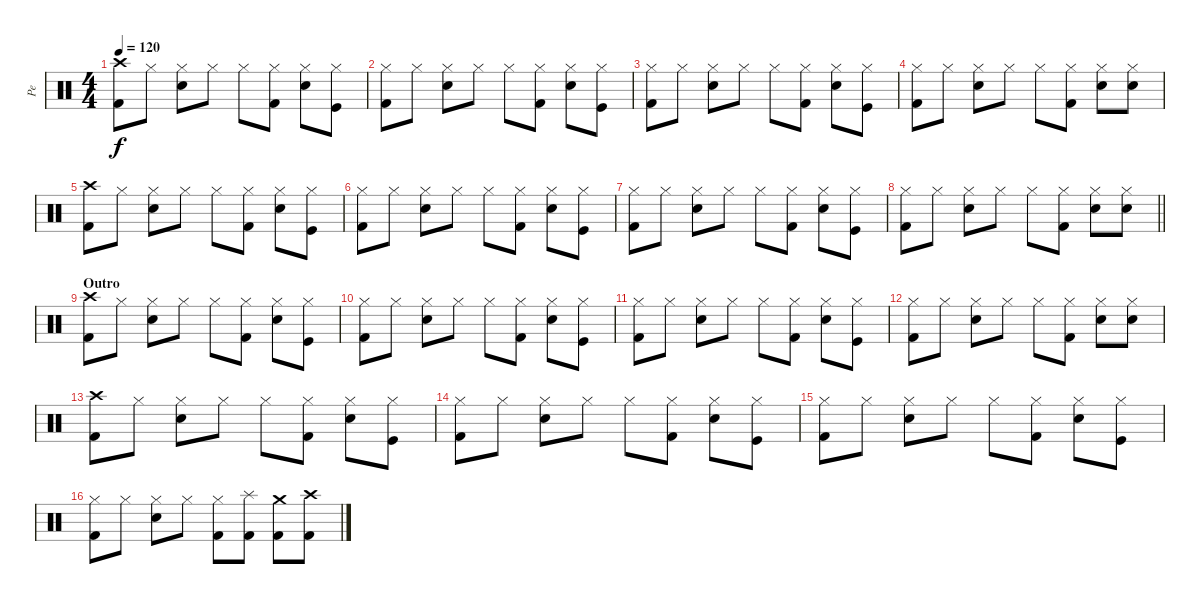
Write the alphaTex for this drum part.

\track ("Pe" "Pe") {instrument percussion}
\staff {score}
\articulation defaults
\ts (4 4)
\tempo 120
\clef neutral
\ks c
("Kick (hit) 2" "Crash high (hit)").8{dy f} "Hi-Hat (closed)".8 ("Snare (hit) 2" "Hi-Hat (closed)").8 "Hi-Hat (closed)".8 "Hi-Hat (closed)".8 ("Kick (hit) 2" "Hi-Hat (closed)").8 ("Snare (hit) 2" "Hi-Hat (closed)").8 ("Kick (hit)" "Hi-Hat (closed)").8 |
("Kick (hit) 2" "Hi-Hat (closed)").8 "Hi-Hat (closed)".8 ("Snare (hit) 2" "Hi-Hat (closed)").8 "Hi-Hat (closed)".8 "Hi-Hat (closed)".8 ("Kick (hit) 2" "Hi-Hat (closed)").8 ("Snare (hit) 2" "Hi-Hat (closed)").8 ("Kick (hit)" "Hi-Hat (closed)").8 |
("Kick (hit) 2" "Hi-Hat (closed)").8 "Hi-Hat (closed)".8 ("Snare (hit) 2" "Hi-Hat (closed)").8 "Hi-Hat (closed)".8 "Hi-Hat (closed)".8 ("Kick (hit) 2" "Hi-Hat (closed)").8 ("Snare (hit) 2" "Hi-Hat (closed)").8 ("Kick (hit)" "Hi-Hat (closed)").8 |
("Kick (hit) 2" "Hi-Hat (closed)").8 "Hi-Hat (closed)".8 ("Snare (hit) 2" "Hi-Hat (closed)").8 "Hi-Hat (closed)".8 "Hi-Hat (closed)".8 ("Kick (hit) 2" "Hi-Hat (closed)").8 ("Snare (hit) 2" "Hi-Hat (closed)").8 ("Snare (hit) 2" "Hi-Hat (closed)").8 |
("Kick (hit) 2" "Crash high (hit)").8 "Hi-Hat (closed)".8 ("Snare (hit) 2" "Hi-Hat (closed)").8 "Hi-Hat (closed)".8 "Hi-Hat (closed)".8 ("Kick (hit) 2" "Hi-Hat (closed)").8 ("Snare (hit) 2" "Hi-Hat (closed)").8 ("Kick (hit)" "Hi-Hat (closed)").8 |
("Kick (hit) 2" "Hi-Hat (closed)").8 "Hi-Hat (closed)".8 ("Snare (hit) 2" "Hi-Hat (closed)").8 "Hi-Hat (closed)".8 "Hi-Hat (closed)".8 ("Kick (hit) 2" "Hi-Hat (closed)").8 ("Snare (hit) 2" "Hi-Hat (closed)").8 ("Kick (hit)" "Hi-Hat (closed)").8 |
("Kick (hit) 2" "Hi-Hat (closed)").8 "Hi-Hat (closed)".8 ("Snare (hit) 2" "Hi-Hat (closed)").8 "Hi-Hat (closed)".8 "Hi-Hat (closed)".8 ("Kick (hit) 2" "Hi-Hat (closed)").8 ("Snare (hit) 2" "Hi-Hat (closed)").8 ("Kick (hit)" "Hi-Hat (closed)").8 |
\barLineRight lightlight
("Kick (hit) 2" "Hi-Hat (closed)").8 "Hi-Hat (closed)".8 ("Snare (hit) 2" "Hi-Hat (closed)").8 "Hi-Hat (closed)".8 "Hi-Hat (closed)".8 ("Kick (hit) 2" "Hi-Hat (closed)").8 ("Snare (hit) 2" "Hi-Hat (closed)").8 ("Snare (hit) 2" "Hi-Hat (closed)").8 |
\section ("" "Outro")
("Kick (hit) 2" "Crash high (hit)").8 "Hi-Hat (closed)".8 ("Snare (hit) 2" "Hi-Hat (closed)").8 "Hi-Hat (closed)".8 "Hi-Hat (closed)".8 ("Kick (hit) 2" "Hi-Hat (closed)").8 ("Snare (hit) 2" "Hi-Hat (closed)").8 ("Kick (hit)" "Hi-Hat (closed)").8 |
("Kick (hit) 2" "Hi-Hat (closed)").8 "Hi-Hat (closed)".8 ("Snare (hit) 2" "Hi-Hat (closed)").8 "Hi-Hat (closed)".8 "Hi-Hat (closed)".8 ("Kick (hit) 2" "Hi-Hat (closed)").8 ("Snare (hit) 2" "Hi-Hat (closed)").8 ("Kick (hit)" "Hi-Hat (closed)").8 |
("Kick (hit) 2" "Hi-Hat (closed)").8 "Hi-Hat (closed)".8 ("Snare (hit) 2" "Hi-Hat (closed)").8 "Hi-Hat (closed)".8 "Hi-Hat (closed)".8 ("Kick (hit) 2" "Hi-Hat (closed)").8 ("Snare (hit) 2" "Hi-Hat (closed)").8 ("Kick (hit)" "Hi-Hat (closed)").8 |
("Kick (hit) 2" "Hi-Hat (closed)").8 "Hi-Hat (closed)".8 ("Snare (hit) 2" "Hi-Hat (closed)").8 "Hi-Hat (closed)".8 "Hi-Hat (closed)".8 ("Kick (hit) 2" "Hi-Hat (closed)").8 ("Snare (hit) 2" "Hi-Hat (closed)").8 ("Snare (hit) 2" "Hi-Hat (closed)").8 |
("Kick (hit) 2" "Crash high (hit)").8 "Hi-Hat (closed)".8 ("Snare (hit) 2" "Hi-Hat (closed)").8 "Hi-Hat (closed)".8 "Hi-Hat (closed)".8 ("Kick (hit) 2" "Hi-Hat (closed)").8 ("Snare (hit) 2" "Hi-Hat (closed)").8 ("Kick (hit)" "Hi-Hat (closed)").8 |
("Kick (hit) 2" "Hi-Hat (closed)").8 "Hi-Hat (closed)".8 ("Snare (hit) 2" "Hi-Hat (closed)").8 "Hi-Hat (closed)".8 "Hi-Hat (closed)".8 ("Kick (hit) 2" "Hi-Hat (closed)").8 ("Snare (hit) 2" "Hi-Hat (closed)").8 ("Kick (hit)" "Hi-Hat (closed)").8 |
("Kick (hit) 2" "Hi-Hat (closed)").8 "Hi-Hat (closed)".8 ("Snare (hit) 2" "Hi-Hat (closed)").8 "Hi-Hat (closed)".8 "Hi-Hat (closed)".8 ("Kick (hit) 2" "Hi-Hat (closed)").8 ("Snare (hit) 2" "Hi-Hat (closed)").8 ("Kick (hit)" "Hi-Hat (closed)").8 |
("Kick (hit) 2" "Hi-Hat (closed)").8 "Hi-Hat (closed)".8 ("Snare (hit) 2" "Hi-Hat (closed)").8 "Hi-Hat (closed)".8 ("Kick (hit) 2" "Hi-Hat (closed)").8 ("Kick (hit) 2" "Splash (hit)").8 ("Kick (hit) 2" "Crash medium (hit)").8 ("Kick (hit) 2" "Crash high (hit)").8
